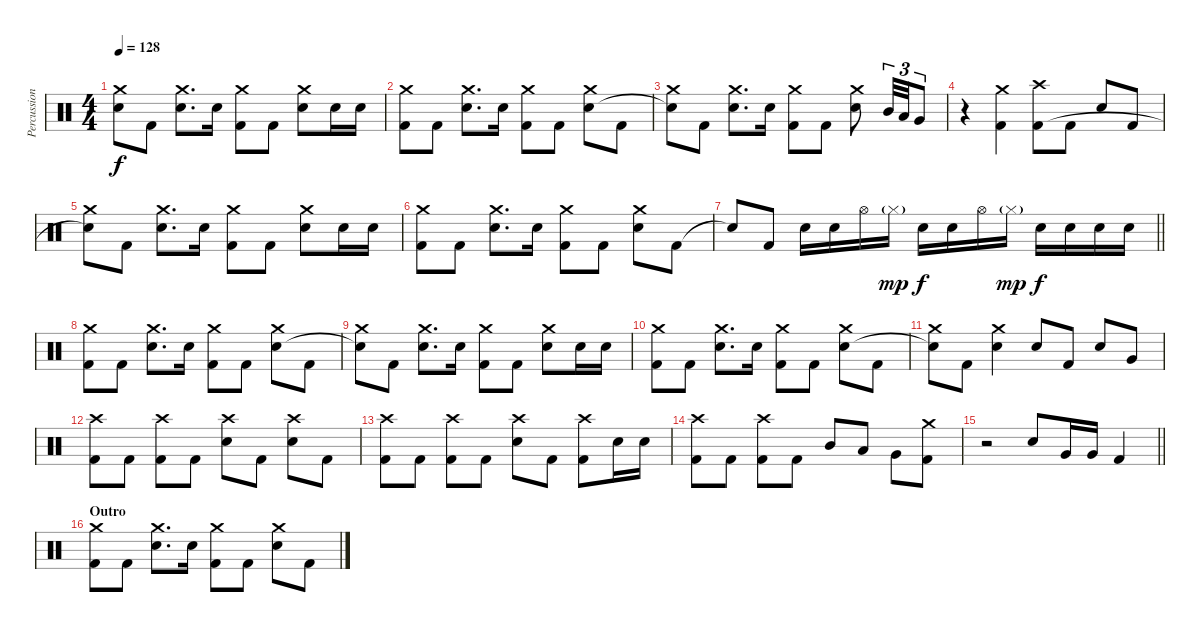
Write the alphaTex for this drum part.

\track ("Percussion" "Percussion") {instrument percussion}
\staff {score}
\articulation defaults
\ts (4 4)
\tempo 128
\clef neutral
\ks c
("Crash medium (hit)" "Snare (hit)"{t}).8{dy f} "Kick (hit) 2".8 ("Crash medium (hit)" "Snare (hit) 2").8{d} "Snare (hit) 2".16 ("Crash medium (hit)" "Kick (hit) 2").8 "Kick (hit) 2".8 ("Crash medium (hit)" "Snare (hit) 2").8 "Snare (hit) 2".16 "Snare (hit) 2".16 |
("Crash medium (hit)" "Kick (hit) 2").8 "Kick (hit) 2".8 ("Crash medium (hit)" "Snare (hit) 2").8{d} "Snare (hit) 2".16 ("Crash medium (hit)" "Kick (hit) 2").8 "Kick (hit) 2".8 ("Crash medium (hit)" "Snare (hit) 2").8 "Kick (hit) 2".8 |
("Crash medium (hit)" "Snare (hit)"{t}).8 "Kick (hit) 2".8 ("Crash medium (hit)" "Snare (hit) 2").8{d} "Snare (hit) 2".16 ("Crash medium (hit)" "Kick (hit) 2").8 "Kick (hit) 2".8 ("Crash medium (hit)" "Snare (hit) 2").8 "Mid Tom (hit)".32{tu (3 2)} "Low Tom (hit)".32{tu (3 2)} "Very Low Tom (hit)".8{tu (3 2)} |
r.4 ("Crash medium (hit)" "Kick (hit) 2").4 ("Crash high (hit)" "Kick (hit) 2").8 "Kick (hit) 2".8 "Snare (hit) 2".8 "Kick (hit) 2".8 |
("Crash medium (hit)" "Snare (hit)"{t}).8 "Kick (hit) 2".8 ("Crash medium (hit)" "Snare (hit) 2").8{d} "Snare (hit) 2".16 ("Crash medium (hit)" "Kick (hit) 2").8 "Kick (hit) 2".8 ("Crash medium (hit)" "Snare (hit) 2").8 "Snare (hit) 2".16 "Snare (hit) 2".16 |
("Crash medium (hit)" "Kick (hit) 2").8 "Kick (hit) 2".8 ("Crash medium (hit)" "Snare (hit) 2").8{d} "Snare (hit) 2".16 ("Crash medium (hit)" "Kick (hit) 2").8 "Kick (hit) 2".8 ("Crash medium (hit)" "Snare (hit) 2").8 "Kick (hit) 2".8 |
\barLineRight lightlight "Snare (hit)"{t}.8 "Kick (hit) 2".8 "Snare (hit) 2".16 "Snare (hit) 2".16 "Hi-Hat (open)".16 "Hi-Hat (closed)"{g}.16{dy mp} "Snare (hit) 2".16{dy f} "Snare (hit) 2".16 "Hi-Hat (open)".16 "Hi-Hat (closed)"{g}.16{dy mp} "Snare (hit) 2".16{dy f} "Snare (hit) 2".16 "Snare (hit) 2".16 "Snare (hit) 2".16
|
("Crash medium (hit)" "Kick (hit) 2").8 "Kick (hit) 2".8 ("Crash medium (hit)" "Snare (hit) 2").8{d} "Snare (hit) 2".16 ("Crash medium (hit)" "Kick (hit) 2").8 "Kick (hit) 2".8 ("Crash medium (hit)" "Snare (hit) 2").8 "Kick (hit) 2".8 |
("Crash medium (hit)" "Snare (hit)"{t}).8 "Kick (hit) 2".8 ("Crash medium (hit)" "Snare (hit) 2").8{d} "Snare (hit) 2".16 ("Crash medium (hit)" "Kick (hit) 2").8 "Kick (hit) 2".8 ("Crash medium (hit)" "Snare (hit) 2").8 "Snare (hit) 2".16 "Snare (hit) 2".16 |
("Crash medium (hit)" "Kick (hit) 2").8 "Kick (hit) 2".8 ("Crash medium (hit)" "Snare (hit) 2").8{d} "Snare (hit) 2".16 ("Crash medium (hit)" "Kick (hit) 2").8 "Kick (hit) 2".8 ("Crash medium (hit)" "Snare (hit) 2").8 "Kick (hit) 2".8 |
("Crash medium (hit)" "Snare (hit)"{t}).8 "Kick (hit) 2".8 ("Crash medium (hit)" "Snare (hit) 2").4 "Snare (hit) 2".8 "Kick (hit) 2".8 "Snare (hit) 2".8 "Very Low Tom (hit)".8 |
("Crash high (hit)" "Kick (hit) 2").8 "Kick (hit) 2".8 ("Crash high (hit)" "Kick (hit) 2").8 "Kick (hit) 2".8 ("Crash high (hit)" "Snare (hit) 2").8 "Kick (hit) 2".8 ("Crash high (hit)" "Snare (hit) 2").8 "Kick (hit) 2".8 |
("Crash high (hit)" "Kick (hit) 2").8 "Kick (hit) 2".8 ("Crash high (hit)" "Kick (hit) 2").8 "Kick (hit) 2".8 ("Crash high (hit)" "Snare (hit) 2").8 "Kick (hit) 2".8 ("Crash high (hit)" "Kick (hit) 2").8 "Snare (hit) 2".16 "Snare (hit) 2".16 |
("Crash high (hit)" "Kick (hit) 2").8 "Kick (hit) 2".8 ("Crash high (hit)" "Kick (hit) 2").8 "Kick (hit) 2".8 "Mid Tom (hit)".8 "Low Tom (hit)".8 "Very Low Tom (hit)".8 ("Crash medium (hit)" "Kick (hit) 2").8 |
\barLineRight lightlight
r.2 "Snare (hit) 2".8 "Very Low Tom (hit)".16 "Very Low Tom (hit)".16 "Kick (hit) 2".4 |
\section ("" "Outro")
("Crash medium (hit)" "Kick (hit) 2").8 "Kick (hit) 2".8 ("Crash medium (hit)" "Snare (hit) 2").8{d} "Snare (hit) 2".16 ("Crash medium (hit)" "Kick (hit) 2").8 "Kick (hit) 2".8 ("Crash medium (hit)" "Snare (hit) 2").8 "Kick (hit) 2".8
